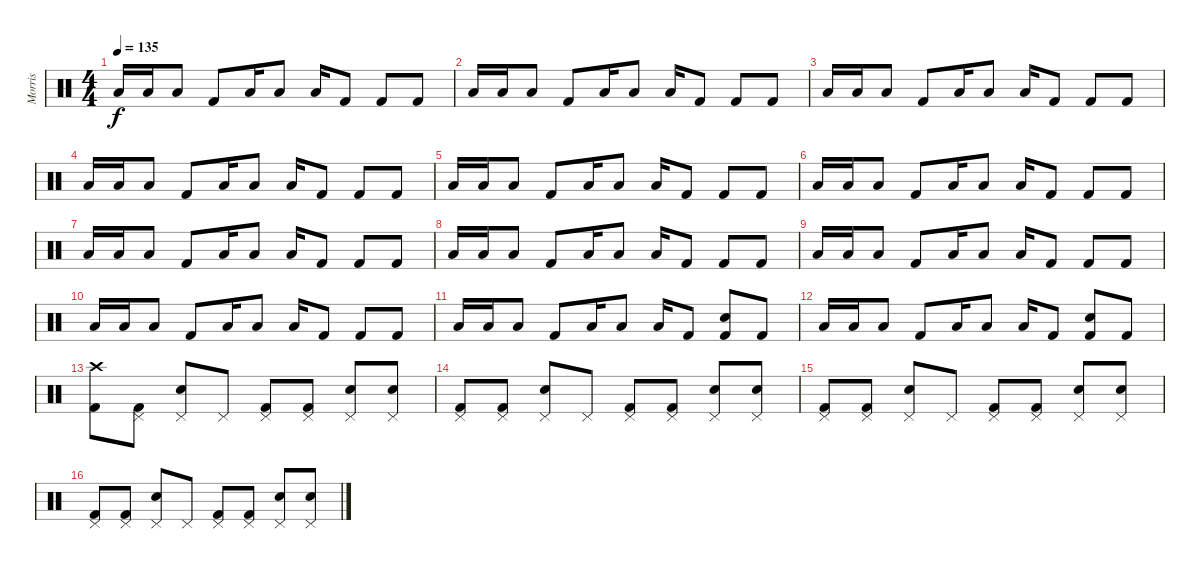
\track ("Morris" "Morris") {instrument percussion}
\staff {score}
\articulation defaults
\ts (4 4)
\tempo 135
\clef neutral
\ks c "Low Tom (hit)".16{dy f} "Low Tom (hit)".16 "Low Tom (hit)".8 "Kick (hit) 2".8 "Low Tom (hit)".16 "Low Tom (hit)".8 "Low Tom (hit)".16 "Kick (hit) 2".8 "Kick (hit) 2".8 "Kick (hit) 2".8
|
"Low Tom (hit)".16 "Low Tom (hit)".16 "Low Tom (hit)".8 "Kick (hit) 2".8 "Low Tom (hit)".16 "Low Tom (hit)".8 "Low Tom (hit)".16 "Kick (hit) 2".8 "Kick (hit) 2".8 "Kick (hit) 2".8 |
"Low Tom (hit)".16 "Low Tom (hit)".16 "Low Tom (hit)".8 "Kick (hit) 2".8 "Low Tom (hit)".16 "Low Tom (hit)".8 "Low Tom (hit)".16 "Kick (hit) 2".8 "Kick (hit) 2".8 "Kick (hit) 2".8 |
"Low Tom (hit)".16 "Low Tom (hit)".16 "Low Tom (hit)".8 "Kick (hit) 2".8 "Low Tom (hit)".16 "Low Tom (hit)".8 "Low Tom (hit)".16 "Kick (hit) 2".8 "Kick (hit) 2".8 "Kick (hit) 2".8 |
"Low Tom (hit)".16 "Low Tom (hit)".16 "Low Tom (hit)".8 "Kick (hit) 2".8 "Low Tom (hit)".16 "Low Tom (hit)".8 "Low Tom (hit)".16 "Kick (hit) 2".8 "Kick (hit) 2".8 "Kick (hit) 2".8 |
"Low Tom (hit)".16 "Low Tom (hit)".16 "Low Tom (hit)".8 "Kick (hit) 2".8 "Low Tom (hit)".16 "Low Tom (hit)".8 "Low Tom (hit)".16 "Kick (hit) 2".8 "Kick (hit) 2".8 "Kick (hit) 2".8 |
"Low Tom (hit)".16 "Low Tom (hit)".16 "Low Tom (hit)".8 "Kick (hit) 2".8 "Low Tom (hit)".16 "Low Tom (hit)".8 "Low Tom (hit)".16 "Kick (hit) 2".8 "Kick (hit) 2".8 "Kick (hit) 2".8 |
"Low Tom (hit)".16 "Low Tom (hit)".16 "Low Tom (hit)".8 "Kick (hit) 2".8 "Low Tom (hit)".16 "Low Tom (hit)".8 "Low Tom (hit)".16 "Kick (hit) 2".8 "Kick (hit) 2".8 "Kick (hit) 2".8 |
"Low Tom (hit)".16 "Low Tom (hit)".16 "Low Tom (hit)".8 "Kick (hit) 2".8 "Low Tom (hit)".16 "Low Tom (hit)".8 "Low Tom (hit)".16 "Kick (hit) 2".8 "Kick (hit) 2".8 "Kick (hit) 2".8 |
"Low Tom (hit)".16 "Low Tom (hit)".16 "Low Tom (hit)".8 "Kick (hit) 2".8 "Low Tom (hit)".16 "Low Tom (hit)".8 "Low Tom (hit)".16 "Kick (hit) 2".8 "Kick (hit) 2".8 "Kick (hit) 2".8 |
"Low Tom (hit)".16 "Low Tom (hit)".16 "Low Tom (hit)".8 "Kick (hit) 2".8 "Low Tom (hit)".16 "Low Tom (hit)".8 "Low Tom (hit)".16 "Kick (hit) 2".8 ("Electric Snare (hit)" "Kick (hit) 2").8 "Kick (hit) 2".8 |
"Low Tom (hit)".16 "Low Tom (hit)".16 "Low Tom (hit)".8 "Kick (hit) 2".8 "Low Tom (hit)".16 "Low Tom (hit)".8 "Low Tom (hit)".16 "Kick (hit) 2".8 ("Electric Snare (hit)" "Kick (hit) 2").8 "Kick (hit) 2".8 |
("Crash high (hit)" "Kick (hit) 2").8 ("Pedal Hi-Hat (hit)" "Kick (hit) 2").8 ("Pedal Hi-Hat (hit)" "Electric Snare (hit)").8 "Pedal Hi-Hat (hit)".8 ("Pedal Hi-Hat (hit)" "Kick (hit) 2").8 ("Pedal Hi-Hat (hit)" "Kick (hit) 2").8 ("Pedal Hi-Hat (hit)" "Electric Snare (hit)").8 ("Pedal Hi-Hat (hit)" "Electric Snare (hit)").8 |
("Pedal Hi-Hat (hit)" "Kick (hit) 2").8 ("Pedal Hi-Hat (hit)" "Kick (hit) 2").8 ("Pedal Hi-Hat (hit)" "Electric Snare (hit)").8 "Pedal Hi-Hat (hit)".8 ("Pedal Hi-Hat (hit)" "Kick (hit) 2").8 ("Pedal Hi-Hat (hit)" "Kick (hit) 2").8 ("Pedal Hi-Hat (hit)" "Electric Snare (hit)").8 ("Pedal Hi-Hat (hit)" "Electric Snare (hit)").8 |
("Pedal Hi-Hat (hit)" "Kick (hit) 2").8 ("Pedal Hi-Hat (hit)" "Kick (hit) 2").8 ("Pedal Hi-Hat (hit)" "Electric Snare (hit)").8 "Pedal Hi-Hat (hit)".8 ("Pedal Hi-Hat (hit)" "Kick (hit) 2").8 ("Pedal Hi-Hat (hit)" "Kick (hit) 2").8 ("Pedal Hi-Hat (hit)" "Electric Snare (hit)").8 ("Pedal Hi-Hat (hit)" "Electric Snare (hit)").8 |
("Pedal Hi-Hat (hit)" "Kick (hit) 2").8 ("Pedal Hi-Hat (hit)" "Kick (hit) 2").8 ("Pedal Hi-Hat (hit)" "Electric Snare (hit)").8 "Pedal Hi-Hat (hit)".8 ("Pedal Hi-Hat (hit)" "Kick (hit) 2").8 ("Pedal Hi-Hat (hit)" "Kick (hit) 2").8 ("Pedal Hi-Hat (hit)" "Electric Snare (hit)").8 ("Pedal Hi-Hat (hit)" "Electric Snare (hit)").8
